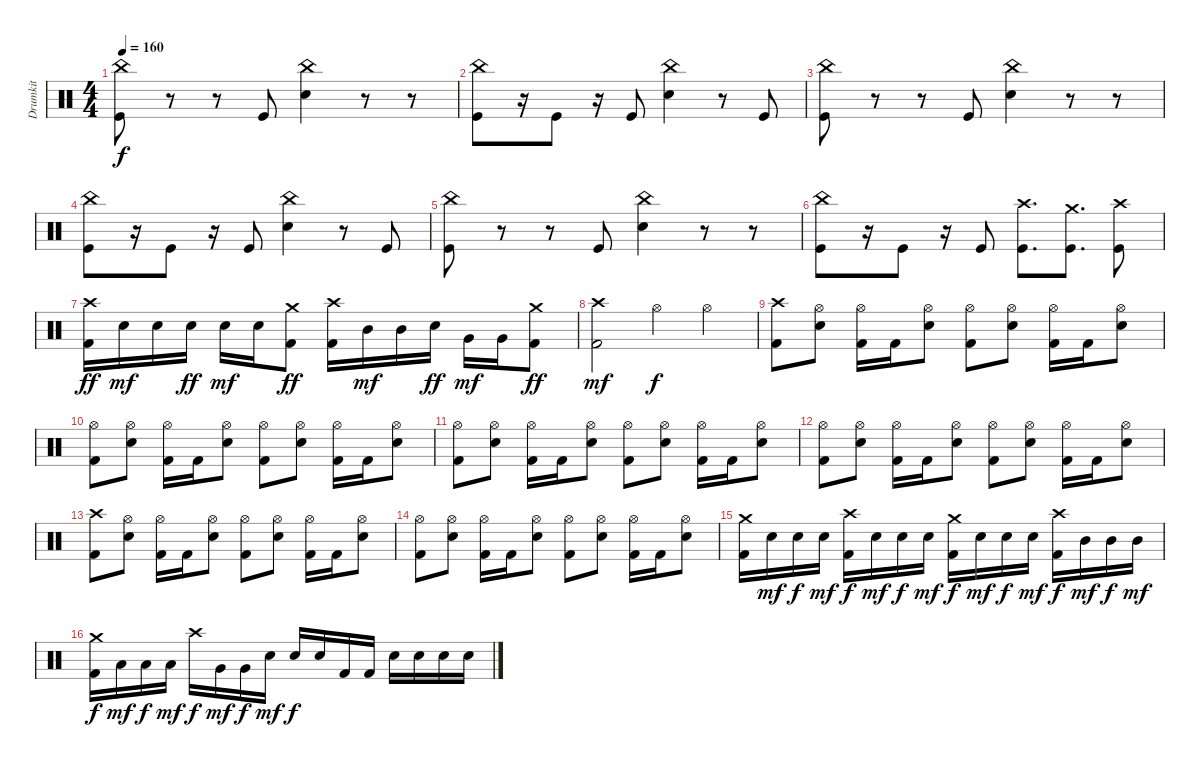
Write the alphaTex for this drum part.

\track ("Drumkit" "Drumkit") {instrument percussion}
\staff {score}
\articulation defaults
\ts (4 4)
\tempo 160
\clef neutral
\ks c
("China (hit)" "Kick (hit)").8{dy f} r.8 r.8 "Kick (hit)".8 ("China (hit)" "Snare (hit) 2").4 r.8 r.8 |
("China (hit)" "Kick (hit)").8 r.16 "Kick (hit)".8 r.16 "Kick (hit)".8 ("China (hit)" "Snare (hit) 2").4 r.8 "Kick (hit)".8 |
("China (hit)" "Kick (hit)").8 r.8 r.8 "Kick (hit)".8 ("China (hit)" "Snare (hit) 2").4 r.8 r.8 |
("China (hit)" "Kick (hit)").8 r.16 "Kick (hit)".8 r.16 "Kick (hit)".8 ("China (hit)" "Snare (hit) 2").4 r.8 "Kick (hit)".8 |
("China (hit)" "Kick (hit)").8 r.8 r.8 "Kick (hit)".8 ("China (hit)" "Snare (hit) 2").4 r.8 r.8 |
("China (hit)" "Kick (hit)").8 r.16 "Kick (hit)".8 r.16 "Kick (hit)".8 ("Crash high (hit)" "Kick (hit)").8{d} ("Crash medium (hit)" "Kick (hit)").8{d} ("Crash high (hit)" "Kick (hit)").8 |
("Crash high (hit)" "Kick (hit) 2").16{dy ff} "Electric Snare (hit)".16{dy mf} "Electric Snare (hit)".16 "Electric Snare (hit)".16{dy ff} "Electric Snare (hit)".16{dy mf} "Electric Snare (hit)".16 ("Crash medium (hit)" "Kick (hit) 2").8{dy ff} ("Crash high (hit)" "Kick (hit) 2").16 "Mid Tom (hit)".16{dy mf} "Mid Tom (hit)".16 "Electric Snare (hit)".16{dy ff} "Very Low Tom (hit)".16{dy mf} "Very Low Tom (hit)".16 ("Crash medium (hit)" "Kick (hit) 2").8{dy ff} |
("Crash high (hit)" "Kick (hit) 2").2{dy mf} "Hi-Hat (open)".4{dy f} "Hi-Hat (open)".4 |
("Crash high (hit)" "Kick (hit) 2").8 ("Hi-Hat (open)" "Electric Snare (hit)").8 ("Hi-Hat (open)" "Kick (hit) 2").16 "Kick (hit) 2".16 ("Hi-Hat (open)" "Electric Snare (hit)").8 ("Hi-Hat (open)" "Kick (hit) 2").8 ("Hi-Hat (open)" "Electric Snare (hit)").8 ("Hi-Hat (open)" "Kick (hit) 2").16 "Kick (hit) 2".16 ("Hi-Hat (open)" "Electric Snare (hit)").8 |
("Hi-Hat (open)" "Kick (hit) 2").8 ("Hi-Hat (open)" "Electric Snare (hit)").8 ("Hi-Hat (open)" "Kick (hit) 2").16 "Kick (hit) 2".16 ("Hi-Hat (open)" "Electric Snare (hit)").8 ("Hi-Hat (open)" "Kick (hit) 2").8 ("Hi-Hat (open)" "Electric Snare (hit)").8 ("Hi-Hat (open)" "Kick (hit) 2").16 "Kick (hit) 2".16 ("Hi-Hat (open)" "Electric Snare (hit)").8 |
("Hi-Hat (open)" "Kick (hit) 2").8 ("Hi-Hat (open)" "Electric Snare (hit)").8 ("Hi-Hat (open)" "Kick (hit) 2").16 "Kick (hit) 2".16 ("Hi-Hat (open)" "Electric Snare (hit)").8 ("Hi-Hat (open)" "Kick (hit) 2").8 ("Hi-Hat (open)" "Electric Snare (hit)").8 ("Hi-Hat (open)" "Kick (hit) 2").16 "Kick (hit) 2".16 ("Hi-Hat (open)" "Electric Snare (hit)").8 |
("Hi-Hat (open)" "Kick (hit) 2").8 ("Hi-Hat (open)" "Electric Snare (hit)").8 ("Hi-Hat (open)" "Kick (hit) 2").16 "Kick (hit) 2".16 ("Hi-Hat (open)" "Electric Snare (hit)").8 ("Hi-Hat (open)" "Kick (hit) 2").8 ("Hi-Hat (open)" "Electric Snare (hit)").8 ("Hi-Hat (open)" "Kick (hit) 2").16 "Kick (hit) 2".16 ("Hi-Hat (open)" "Electric Snare (hit)").8 |
("Crash high (hit)" "Kick (hit) 2").8 ("Hi-Hat (open)" "Electric Snare (hit)").8 ("Hi-Hat (open)" "Kick (hit) 2").16 "Kick (hit) 2".16 ("Hi-Hat (open)" "Electric Snare (hit)").8 ("Hi-Hat (open)" "Kick (hit) 2").8 ("Hi-Hat (open)" "Electric Snare (hit)").8 ("Hi-Hat (open)" "Kick (hit) 2").16 "Kick (hit) 2".16 ("Hi-Hat (open)" "Electric Snare (hit)").8 |
("Hi-Hat (open)" "Kick (hit) 2").8 ("Hi-Hat (open)" "Electric Snare (hit)").8 ("Hi-Hat (open)" "Kick (hit) 2").16 "Kick (hit) 2".16 ("Hi-Hat (open)" "Electric Snare (hit)").8 ("Hi-Hat (open)" "Kick (hit) 2").8 ("Hi-Hat (open)" "Electric Snare (hit)").8 ("Hi-Hat (open)" "Kick (hit) 2").16 "Kick (hit) 2".16 ("Hi-Hat (open)" "Electric Snare (hit)").8 |
("Crash medium (hit)" "Kick (hit) 2").16 "Electric Snare (hit)".16{dy mf} "Electric Snare (hit)".16{dy f} "Electric Snare (hit)".16{dy mf} ("Crash high (hit)" "Kick (hit) 2").16{dy f} "Electric Snare (hit)".16{dy mf} "Electric Snare (hit)".16{dy f} "Electric Snare (hit)".16{dy mf} ("Crash medium (hit)" "Kick (hit) 2").16{dy f} "Electric Snare (hit)".16{dy mf} "Electric Snare (hit)".16{dy f} "Electric Snare (hit)".16{dy mf} ("Crash high (hit)" "Kick (hit) 2").16{dy f} "Mid Tom (hit)".16{dy mf} "Mid Tom (hit)".16{dy f} "Mid Tom (hit)".16{dy mf} |
("Crash medium (hit)" "Kick (hit) 2").16{dy f} "Low Tom (hit)".16{dy mf} "Low Tom (hit)".16{dy f} "Low Tom (hit)".16{dy mf} "Crash high (hit)".16{dy f} "Very Low Tom (hit)".16{dy mf} "Very Low Tom (hit)".16{dy f} "Electric Snare (hit)".16{dy mf} "Electric Snare (hit)".16{dy f} "Electric Snare (hit)".16 "Kick (hit) 2".16 "Kick (hit) 2".16 "Electric Snare (hit)".16 "Electric Snare (hit)".16 "Electric Snare (hit)".16 "Electric Snare (hit)".16
